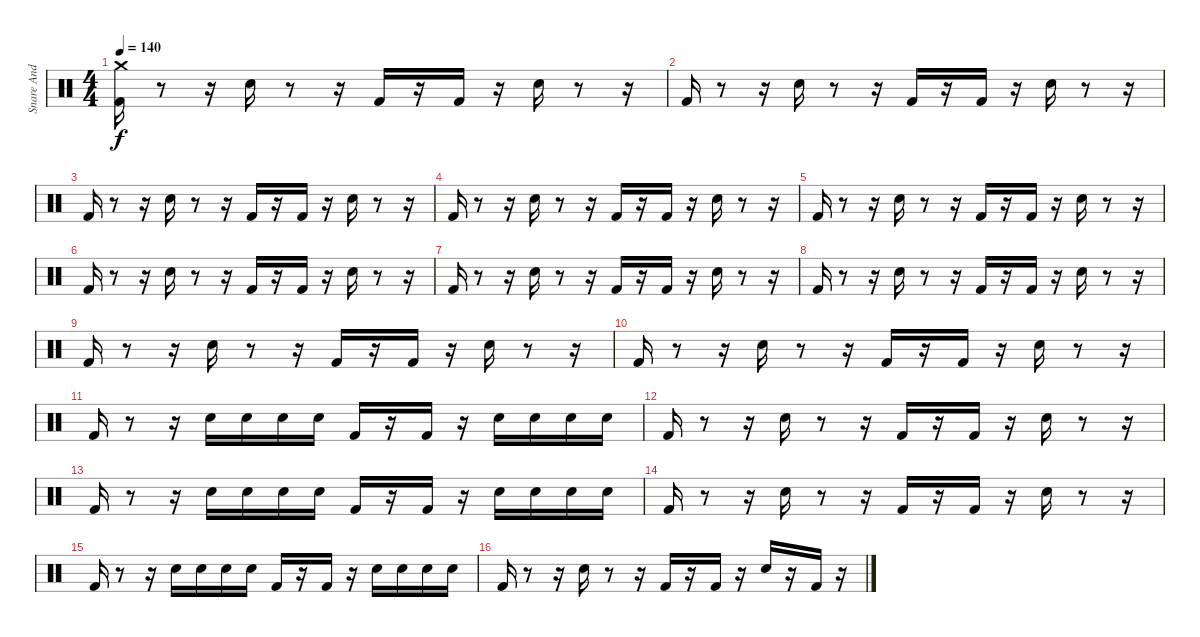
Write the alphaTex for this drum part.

\track ("Snare And Bass Drums" "Snare And ") {instrument percussion}
\staff {score}
\articulation defaults
\ts (4 4)
\tempo 140
\clef neutral
\ks c
("Kick (hit) 2" "Crash medium (hit)").16{dy f} r.8 r.16 "Snare (hit) 2".16 r.8 r.16 "Kick (hit) 2".16 r.16 "Kick (hit) 2".16 r.16 "Snare (hit) 2".16 r.8 r.16 |
"Kick (hit) 2".16 r.8 r.16 "Snare (hit) 2".16 r.8 r.16 "Kick (hit) 2".16 r.16 "Kick (hit) 2".16 r.16 "Snare (hit) 2".16 r.8 r.16 |
"Kick (hit) 2".16 r.8 r.16 "Snare (hit) 2".16 r.8 r.16 "Kick (hit) 2".16 r.16 "Kick (hit) 2".16 r.16 "Snare (hit) 2".16 r.8 r.16 |
"Kick (hit) 2".16 r.8 r.16 "Snare (hit) 2".16 r.8 r.16 "Kick (hit) 2".16 r.16 "Kick (hit) 2".16 r.16 "Snare (hit) 2".16 r.8 r.16 |
"Kick (hit) 2".16 r.8 r.16 "Snare (hit) 2".16 r.8 r.16 "Kick (hit) 2".16 r.16 "Kick (hit) 2".16 r.16 "Snare (hit) 2".16 r.8 r.16 |
"Kick (hit) 2".16 r.8 r.16 "Snare (hit) 2".16 r.8 r.16 "Kick (hit) 2".16 r.16 "Kick (hit) 2".16 r.16 "Snare (hit) 2".16 r.8 r.16 |
"Kick (hit) 2".16 r.8 r.16 "Snare (hit) 2".16 r.8 r.16 "Kick (hit) 2".16 r.16 "Kick (hit) 2".16 r.16 "Snare (hit) 2".16 r.8 r.16 |
"Kick (hit) 2".16 r.8 r.16 "Snare (hit) 2".16 r.8 r.16 "Kick (hit) 2".16 r.16 "Kick (hit) 2".16 r.16 "Snare (hit) 2".16 r.8 r.16 |
"Kick (hit) 2".16 r.8 r.16 "Snare (hit) 2".16 r.8 r.16 "Kick (hit) 2".16 r.16 "Kick (hit) 2".16 r.16 "Snare (hit) 2".16 r.8 r.16 |
"Kick (hit) 2".16 r.8 r.16 "Snare (hit) 2".16 r.8 r.16 "Kick (hit) 2".16 r.16 "Kick (hit) 2".16 r.16 "Snare (hit) 2".16 r.8 r.16 |
"Kick (hit) 2".16 r.8 r.16 "Snare (hit) 2".16 "Snare (hit) 2".16 "Snare (hit) 2".16 "Snare (hit) 2".16 "Kick (hit) 2".16 r.16 "Kick (hit) 2".16 r.16 "Snare (hit) 2".16 "Snare (hit) 2".16 "Snare (hit) 2".16 "Snare (hit) 2".16 |
"Kick (hit) 2".16 r.8 r.16 "Snare (hit) 2".16 r.8 r.16 "Kick (hit) 2".16 r.16 "Kick (hit) 2".16 r.16 "Snare (hit) 2".16 r.8 r.16 |
"Kick (hit) 2".16 r.8 r.16 "Snare (hit) 2".16 "Snare (hit) 2".16 "Snare (hit) 2".16 "Snare (hit) 2".16 "Kick (hit) 2".16 r.16 "Kick (hit) 2".16 r.16 "Snare (hit) 2".16 "Snare (hit) 2".16 "Snare (hit) 2".16 "Snare (hit) 2".16 |
"Kick (hit) 2".16 r.8 r.16 "Snare (hit) 2".16 r.8 r.16 "Kick (hit) 2".16 r.16 "Kick (hit) 2".16 r.16 "Snare (hit) 2".16 r.8 r.16 |
"Kick (hit) 2".16 r.8 r.16 "Snare (hit) 2".16 "Snare (hit) 2".16 "Snare (hit) 2".16 "Snare (hit) 2".16 "Kick (hit) 2".16 r.16 "Kick (hit) 2".16 r.16 "Snare (hit) 2".16 "Snare (hit) 2".16 "Snare (hit) 2".16 "Snare (hit) 2".16 |
"Kick (hit) 2".16 r.8 r.16 "Snare (hit) 2".16 r.8 r.16 "Kick (hit) 2".16 r.16 "Kick (hit) 2".16 r.16 "Snare (hit) 2".16 r.16 "Kick (hit) 2".16 r.16
